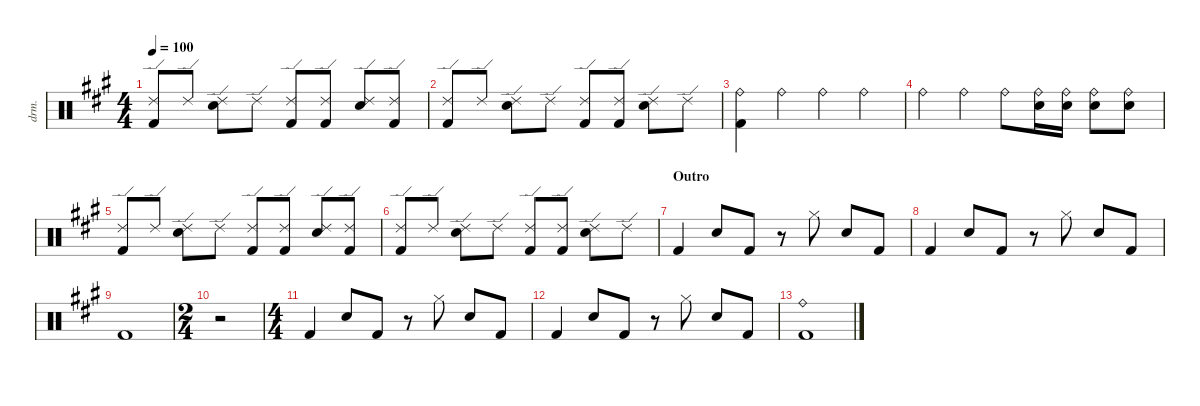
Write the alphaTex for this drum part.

\defaultSystemsLayout 4
\hideDynamics
\bracketExtendMode nobrackets
\otherSystemsTrackNameOrientation horizontal
\track ("Drums" "drm.") {instrument percussion}
\staff {score}
\articulation defaults
\ts (4 4)
\tempo 100
\clef neutral
\ks a
("Ride (edge) 2"{acc forcenatural} "Kick (hit) 2"{acc forcenatural}).8{dy f} "Ride (edge) 2"{acc forcenatural}.8 ("Ride (edge) 2"{acc forcenatural} "Snare (hit) 2"{acc forcenatural}).8 "Ride (edge) 2"{acc forcenatural}.8 ("Ride (edge) 2"{acc forcenatural} "Kick (hit) 2"{acc forcenatural}).8 ("Ride (edge) 2"{acc forcenatural} "Kick (hit) 2"{acc forcenatural}).8 ("Ride (edge) 2"{acc forcenatural} "Snare (hit) 2"{acc forcenatural}).8 ("Ride (edge) 2"{acc forcenatural} "Kick (hit) 2"{acc forcenatural}).8 |
("Ride (edge) 2"{acc forcenatural} "Kick (hit) 2"{acc forcenatural}).8 "Ride (edge) 2"{acc forcenatural}.8 ("Ride (edge) 2"{acc forcenatural} "Snare (hit) 2"{acc forcenatural}).8 "Ride (edge) 2"{acc forcenatural}.8 ("Ride (edge) 2"{acc forcenatural} "Kick (hit) 2"{acc forcenatural}).8 ("Ride (edge) 2"{acc forcenatural} "Kick (hit) 2"{acc forcenatural}).8 ("Ride (edge) 2"{acc forcenatural} "Snare (hit) 2"{acc forcenatural}).8 "Ride (edge) 2"{acc forcenatural}.8 |
("Ride (bell)"{acc forcenatural} "Kick (hit) 2"{acc forcenatural}).4 "Ride (bell)"{acc forcenatural}.4 "Ride (bell)"{acc forcenatural}.4 "Ride (bell)"{acc forcenatural}.4 |
"Ride (bell)"{acc forcenatural}.4 "Ride (bell)"{acc forcenatural}.4 "Ride (bell)"{acc forcenatural}.8 ("Ride (bell)"{acc forcenatural} "Snare (hit) 2"{acc forcenatural}).16 ("Ride (bell)"{acc forcenatural} "Snare (hit) 2"{acc forcenatural}).16 ("Ride (bell)"{acc forcenatural} "Snare (hit) 2"{acc forcenatural}).8 ("Ride (bell)"{acc forcenatural} "Snare (hit) 2"{acc forcenatural}).8 |
("Ride (edge) 2"{acc forcenatural} "Kick (hit) 2"{acc forcenatural}).8 "Ride (edge) 2"{acc forcenatural}.8 ("Ride (edge) 2"{acc forcenatural} "Snare (hit) 2"{acc forcenatural}).8 "Ride (edge) 2"{acc forcenatural}.8 ("Ride (edge) 2"{acc forcenatural} "Kick (hit) 2"{acc forcenatural}).8 ("Ride (edge) 2"{acc forcenatural} "Kick (hit) 2"{acc forcenatural}).8 ("Ride (edge) 2"{acc forcenatural} "Snare (hit) 2"{acc forcenatural}).8 ("Ride (edge) 2"{acc forcenatural} "Kick (hit) 2"{acc forcenatural}).8 |
("Ride (edge) 2"{acc forcenatural} "Kick (hit) 2"{acc forcenatural}).8 "Ride (edge) 2"{acc forcenatural}.8 ("Ride (edge) 2"{acc forcenatural} "Snare (hit) 2"{acc forcenatural}).8 "Ride (edge) 2"{acc forcenatural}.8 ("Ride (edge) 2"{acc forcenatural} "Kick (hit) 2"{acc forcenatural}).8 ("Ride (edge) 2"{acc forcenatural} "Kick (hit) 2"{acc forcenatural}).8 ("Ride (edge) 2"{acc forcenatural} "Snare (hit) 2"{acc forcenatural}).8 "Ride (edge) 2"{acc forcenatural}.8 |
\section ("" "Outro")
"Kick (hit) 2"{acc forcenatural}.4 "Snare (hit) 2"{acc forcenatural}.8 "Kick (hit) 2"{acc forcenatural}.8 r.8 "Hi-Hat (closed)"{acc forcenatural}.8 "Snare (hit) 2"{acc forcenatural}.8 "Kick (hit) 2"{acc forcenatural}.8 |
"Kick (hit) 2"{acc forcenatural}.4 "Snare (hit) 2"{acc forcenatural}.8 "Kick (hit) 2"{acc forcenatural}.8 r.8 "Hi-Hat (closed)"{acc forcenatural}.8 "Snare (hit) 2"{acc forcenatural}.8 "Kick (hit) 2"{acc forcenatural}.8 |
"Kick (hit) 2"{acc forcenatural}.1 |
\ts (2 4)
r.2 |
\ts (4 4)
"Kick (hit) 2"{acc forcenatural}.4 "Snare (hit) 2"{acc forcenatural}.8 "Kick (hit) 2"{acc forcenatural}.8 r.8 "Hi-Hat (closed)"{acc forcenatural}.8 "Snare (hit) 2"{acc forcenatural}.8 "Kick (hit) 2"{acc forcenatural}.8 |
"Kick (hit) 2"{acc forcenatural}.4 "Snare (hit) 2"{acc forcenatural}.8 "Kick (hit) 2"{acc forcenatural}.8 r.8 "Hi-Hat (closed)"{acc forcenatural}.8 "Snare (hit) 2"{acc forcenatural}.8 "Kick (hit) 2"{acc forcenatural}.8 |
("Ride (bell)"{acc forcenatural} "Kick (hit) 2"{acc forcenatural}).1
